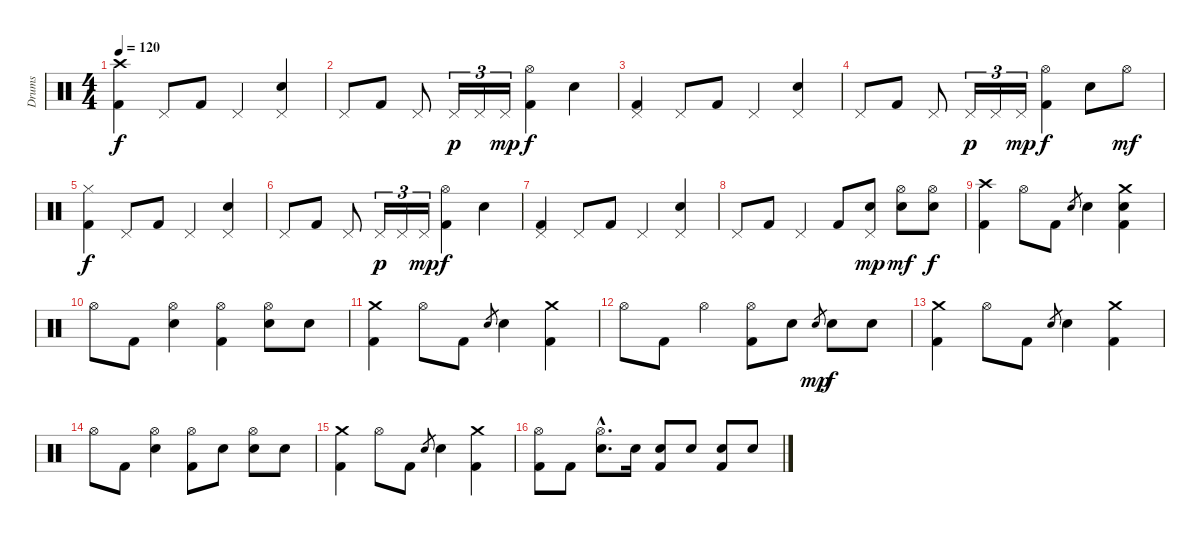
\track ("Drums" "Drums") {instrument percussion}
\staff {score}
\articulation defaults
\ts (4 4)
\tempo 120
\clef neutral
\ks c
("Kick (hit) 2" "Crash high (hit)").4{dy f} "Pedal Hi-Hat (hit)".8 "Kick (hit) 2".8 "Pedal Hi-Hat (hit)".4 ("Snare (hit) 2" "Pedal Hi-Hat (hit)").4 |
"Pedal Hi-Hat (hit)".8 "Kick (hit) 2".8 "Pedal Hi-Hat (hit)".8 "Pedal Hi-Hat (hit)".16{tu (3 2) dy p} "Pedal Hi-Hat (hit)".16{tu (3 2)} "Pedal Hi-Hat (hit)".16{tu (3 2) dy mp} ("Kick (hit) 2" "Hi-Hat (open)").4{dy f} "Snare (hit) 2".4 |
("Kick (hit) 2" "Pedal Hi-Hat (hit)").4 "Pedal Hi-Hat (hit)".8 "Kick (hit) 2".8 "Pedal Hi-Hat (hit)".4 ("Snare (hit) 2" "Pedal Hi-Hat (hit)").4 |
"Pedal Hi-Hat (hit)".8 "Kick (hit) 2".8 "Pedal Hi-Hat (hit)".8 "Pedal Hi-Hat (hit)".16{tu (3 2) dy p} "Pedal Hi-Hat (hit)".16{tu (3 2)} "Pedal Hi-Hat (hit)".16{tu (3 2) dy mp} ("Kick (hit) 2" "Hi-Hat (open)").4{dy f} "Snare (hit) 2".8 "Hi-Hat (open)".8{dy mf} |
("Kick (hit) 2" "Hi-Hat (closed)").4{dy f} "Pedal Hi-Hat (hit)".8 "Kick (hit) 2".8 "Pedal Hi-Hat (hit)".4 ("Snare (hit) 2" "Pedal Hi-Hat (hit)").4 |
"Pedal Hi-Hat (hit)".8 "Kick (hit) 2".8 "Pedal Hi-Hat (hit)".8 "Pedal Hi-Hat (hit)".16{tu (3 2) dy p} "Pedal Hi-Hat (hit)".16{tu (3 2)} "Pedal Hi-Hat (hit)".16{tu (3 2) dy mp} ("Kick (hit) 2" "Hi-Hat (open)").4{dy f} "Snare (hit) 2".4 |
("Kick (hit) 2" "Pedal Hi-Hat (hit)").4 "Pedal Hi-Hat (hit)".8 "Kick (hit) 2".8 "Pedal Hi-Hat (hit)".4 ("Snare (hit) 2" "Pedal Hi-Hat (hit)").4 |
"Pedal Hi-Hat (hit)".8 "Kick (hit) 2".8 "Pedal Hi-Hat (hit)".4 "Kick (hit) 2".8 ("Snare (hit) 2" "Pedal Hi-Hat (hit)").8{dy mp} ("Snare (hit) 2" "Hi-Hat (open)").8{dy mf} ("Snare (hit) 2" "Hi-Hat (open)").8{dy f} |
("Kick (hit) 2" "Crash high (hit)").4 "Hi-Hat (open)".8 "Kick (hit) 2".8 "Snare (hit) 2".8{gr} "Snare (hit) 2".4 ("Kick (hit) 2" "Snare (hit) 2" "Crash medium (hit)").4 |
"Hi-Hat (open)".8 "Kick (hit) 2".8 ("Snare (hit) 2" "Hi-Hat (open)").4 ("Kick (hit) 2" "Hi-Hat (open)").4 ("Snare (hit) 2" "Hi-Hat (open)").8 "Snare (hit) 2".8 |
("Kick (hit) 2" "Crash medium (hit)").4 "Hi-Hat (open)".8 "Kick (hit) 2".8 "Snare (hit) 2".8{gr} "Snare (hit) 2".4 ("Kick (hit) 2" "Crash medium (hit)").4 |
"Hi-Hat (open)".8 "Kick (hit) 2".8 "Hi-Hat (open)".4 ("Kick (hit) 2" "Hi-Hat (open)").8 "Snare (hit) 2".8 "Snare (hit) 2".8{gr dy mp} "Snare (hit) 2".8{dy f} "Snare (hit) 2".8 |
("Kick (hit) 2" "Crash medium (hit)").4 "Hi-Hat (open)".8 "Kick (hit) 2".8 "Snare (hit) 2".8{gr} "Snare (hit) 2".4 ("Kick (hit) 2" "Crash medium (hit)").4 |
"Hi-Hat (open)".8 "Kick (hit) 2".8 ("Snare (hit) 2" "Hi-Hat (open)").4 ("Kick (hit) 2" "Hi-Hat (open)").8 "Snare (hit) 2".8 ("Snare (hit) 2" "Hi-Hat (open)").8 "Snare (hit) 2".8 |
("Kick (hit) 2" "Crash medium (hit)").4 "Hi-Hat (open)".8 "Kick (hit) 2".8 "Snare (hit) 2".8{gr} "Snare (hit) 2".4 ("Kick (hit) 2" "Crash medium (hit)").4 |
("Kick (hit) 2" "Hi-Hat (open)").8 "Kick (hit) 2".8 ("Snare (hit) 2"{hac} "Hi-Hat (open)"{hac}).8{d} "Snare (hit) 2".16 ("Kick (hit) 2" "Snare (hit) 2").8 "Snare (hit) 2".8 ("Kick (hit) 2" "Snare (hit) 2").8 "Snare (hit) 2".8
